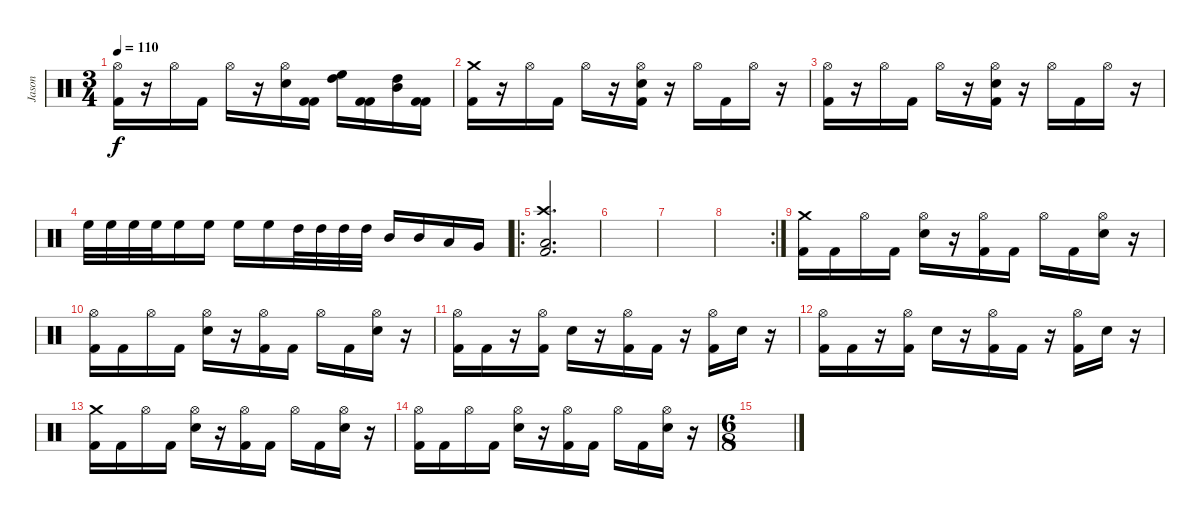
\track ("Jason" "Jason") {instrument percussion}
\staff {score}
\articulation defaults
\ts (3 4)
\tempo 110
\clef neutral
\ks c
("Hi-Hat (open)" "Kick (hit) 2").16{dy f} r.16 "Hi-Hat (open)".16 "Kick (hit) 2".16 "Hi-Hat (open)".16 r.16 ("Hi-Hat (open)" "Snare (hit) 2").16 ("Kick (hit) 2" "Kick (hit) 2").16 ("High Floor Tom (hit)" "High Tom (hit)").16 ("Kick (hit) 2" "Kick (hit) 2").16 ("High Tom (hit)" "Mid Tom (hit)").16 ("Kick (hit) 2" "Kick (hit) 2").16 |
("Crash medium (hit)" "Kick (hit) 2").16 r.16 "Hi-Hat (open)".16 "Kick (hit) 2".16 "Hi-Hat (open)".16 r.16 ("Hi-Hat (open)" "Snare (hit) 2" "Kick (hit) 2").16 r.16 "Hi-Hat (open)".16 "Kick (hit) 2".16 "Hi-Hat (open)".16 r.16 |
("Hi-Hat (open)" "Kick (hit) 2").16 r.16 "Hi-Hat (open)".16 "Kick (hit) 2".16 "Hi-Hat (open)".16 r.16 ("Hi-Hat (open)" "Snare (hit) 2" "Kick (hit) 2").16 r.16 "Hi-Hat (open)".16 "Kick (hit) 2".16 "Hi-Hat (open)".16 r.16 |
"High Floor Tom (hit)".32 "High Floor Tom (hit)".32 "High Floor Tom (hit)".32 "High Floor Tom (hit)".32 "High Floor Tom (hit)".16 "High Floor Tom (hit)".16 "High Floor Tom (hit)".16 "High Floor Tom (hit)".16 "High Tom (hit)".32 "High Tom (hit)".32 "High Tom (hit)".32 "High Tom (hit)".32 "Mid Tom (hit)".16 "Mid Tom (hit)".16 "Low Tom (hit)".16 "Very Low Tom (hit)".16 |
\ro
("Crash high (hit)" "Low Floor Tom (hit)" "Kick (hit) 2").2{d} |
|
|
\rc 2
|
("Crash medium (hit)" "Kick (hit) 2").16 "Kick (hit) 2".16 "Hi-Hat (open)".16 "Kick (hit) 2".16 ("Hi-Hat (open)" "Snare (hit) 2").16 r.16 ("Hi-Hat (open)" "Kick (hit) 2").16 "Kick (hit) 2".16 "Hi-Hat (open)".16 "Kick (hit) 2".16 ("Hi-Hat (open)" "Snare (hit) 2").16 r.16 |
("Hi-Hat (open)" "Kick (hit) 2").16 "Kick (hit) 2".16 "Hi-Hat (open)".16 "Kick (hit) 2".16 ("Hi-Hat (open)" "Snare (hit) 2").16 r.16 ("Hi-Hat (open)" "Kick (hit) 2").16 "Kick (hit) 2".16 "Hi-Hat (open)".16 "Kick (hit) 2".16 ("Hi-Hat (open)" "Snare (hit) 2").16 r.16 |
("Hi-Hat (open)" "Kick (hit) 2").16 "Kick (hit) 2".16 r.16 ("Hi-Hat (open)" "Kick (hit) 2").16 "Snare (hit) 2".16 r.16 ("Hi-Hat (open)" "Kick (hit) 2").16 "Kick (hit) 2".16 r.16 ("Hi-Hat (open)" "Kick (hit) 2").16 "Snare (hit) 2".16 r.16 |
("Hi-Hat (open)" "Kick (hit) 2").16 "Kick (hit) 2".16 r.16 ("Hi-Hat (open)" "Kick (hit) 2").16 "Snare (hit) 2".16 r.16 ("Hi-Hat (open)" "Kick (hit) 2").16 "Kick (hit) 2".16 r.16 ("Hi-Hat (open)" "Kick (hit) 2").16 "Snare (hit) 2".16 r.16 |
("Crash medium (hit)" "Kick (hit) 2").16 "Kick (hit) 2".16 "Hi-Hat (open)".16 "Kick (hit) 2".16 ("Hi-Hat (open)" "Snare (hit) 2").16 r.16 ("Hi-Hat (open)" "Kick (hit) 2").16 "Kick (hit) 2".16 "Hi-Hat (open)".16 "Kick (hit) 2".16 ("Hi-Hat (open)" "Snare (hit) 2").16 r.16 |
("Hi-Hat (open)" "Kick (hit) 2").16 "Kick (hit) 2".16 "Hi-Hat (open)".16 "Kick (hit) 2".16 ("Hi-Hat (open)" "Snare (hit) 2").16 r.16 ("Hi-Hat (open)" "Kick (hit) 2").16 "Kick (hit) 2".16 "Hi-Hat (open)".16 "Kick (hit) 2".16 ("Hi-Hat (open)" "Snare (hit) 2").16 r.16 |
\ts (6 8)
